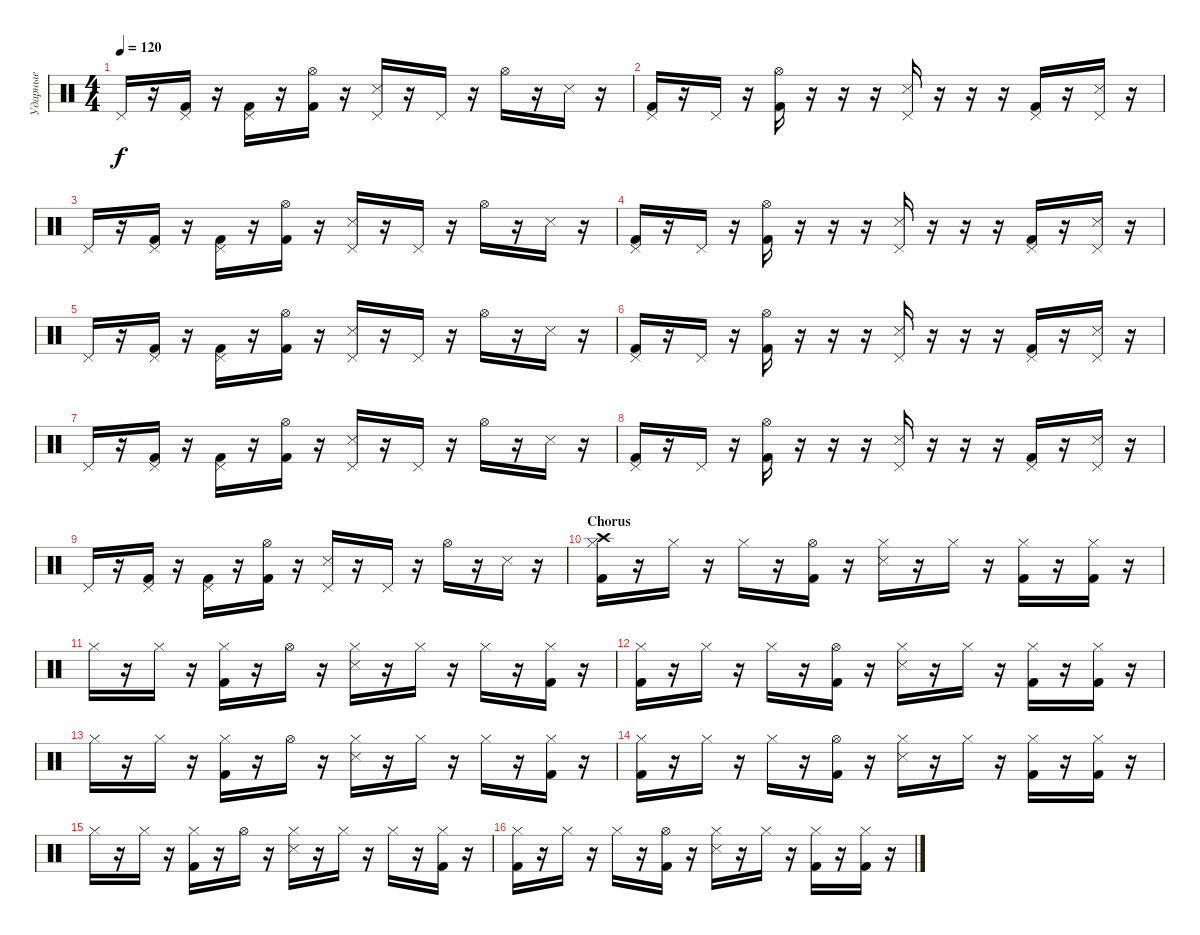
\track ("Ударные" "Ударные") {instrument percussion}
\staff {score}
\articulation defaults
\ts (4 4)
\tempo 120
\clef neutral
\ks c "Pedal Hi-Hat (hit)".16{dy f}
r.16 ("Pedal Hi-Hat (hit)" "Kick (hit) 2").16 r.16 ("Pedal Hi-Hat (hit)" "Kick (hit) 2").16 r.16 ("Hi-Hat (open)" "Kick (hit) 2").16 r.16 ("Pedal Hi-Hat (hit)" "Snare (side stick) 3").16 r.16 "Pedal Hi-Hat (hit)".16 r.16 "Hi-Hat (open)".16 r.16 "Snare (side stick) 3".16 r.16 |
("Pedal Hi-Hat (hit)" "Kick (hit) 2").16 r.16 "Pedal Hi-Hat (hit)".16 r.16 ("Hi-Hat (open)" "Kick (hit) 2").16 r.16 r.16 r.16 ("Pedal Hi-Hat (hit)" "Snare (side stick) 3").16 r.16 r.16 r.16 ("Pedal Hi-Hat (hit)" "Kick (hit) 2").16 r.16 ("Pedal Hi-Hat (hit)" "Snare (side stick) 3").16 r.16 |
"Pedal Hi-Hat (hit)".16 r.16 ("Pedal Hi-Hat (hit)" "Kick (hit) 2").16 r.16 ("Pedal Hi-Hat (hit)" "Kick (hit) 2").16 r.16 ("Hi-Hat (open)" "Kick (hit) 2").16 r.16 ("Pedal Hi-Hat (hit)" "Snare (side stick) 3").16 r.16 "Pedal Hi-Hat (hit)".16 r.16 "Hi-Hat (open)".16 r.16 "Snare (side stick) 3".16 r.16 |
("Pedal Hi-Hat (hit)" "Kick (hit) 2").16 r.16 "Pedal Hi-Hat (hit)".16 r.16 ("Hi-Hat (open)" "Kick (hit) 2").16 r.16 r.16 r.16 ("Pedal Hi-Hat (hit)" "Snare (side stick) 3").16 r.16 r.16 r.16 ("Pedal Hi-Hat (hit)" "Kick (hit) 2").16 r.16 ("Pedal Hi-Hat (hit)" "Snare (side stick) 3").16 r.16 |
"Pedal Hi-Hat (hit)".16 r.16 ("Pedal Hi-Hat (hit)" "Kick (hit) 2").16 r.16 ("Pedal Hi-Hat (hit)" "Kick (hit) 2").16 r.16 ("Hi-Hat (open)" "Kick (hit) 2").16 r.16 ("Pedal Hi-Hat (hit)" "Snare (side stick) 3").16 r.16 "Pedal Hi-Hat (hit)".16 r.16 "Hi-Hat (open)".16 r.16 "Snare (side stick) 3".16 r.16 |
("Pedal Hi-Hat (hit)" "Kick (hit) 2").16 r.16 "Pedal Hi-Hat (hit)".16 r.16 ("Hi-Hat (open)" "Kick (hit) 2").16 r.16 r.16 r.16 ("Pedal Hi-Hat (hit)" "Snare (side stick) 3").16 r.16 r.16 r.16 ("Pedal Hi-Hat (hit)" "Kick (hit) 2").16 r.16 ("Pedal Hi-Hat (hit)" "Snare (side stick) 3").16 r.16 |
"Pedal Hi-Hat (hit)".16 r.16 ("Pedal Hi-Hat (hit)" "Kick (hit) 2").16 r.16 ("Pedal Hi-Hat (hit)" "Kick (hit) 2").16 r.16 ("Hi-Hat (open)" "Kick (hit) 2").16 r.16 ("Pedal Hi-Hat (hit)" "Snare (side stick) 3").16 r.16 "Pedal Hi-Hat (hit)".16 r.16 "Hi-Hat (open)".16 r.16 "Snare (side stick) 3".16 r.16 |
("Pedal Hi-Hat (hit)" "Kick (hit) 2").16 r.16 "Pedal Hi-Hat (hit)".16 r.16 ("Hi-Hat (open)" "Kick (hit) 2").16 r.16 r.16 r.16 ("Pedal Hi-Hat (hit)" "Snare (side stick) 3").16 r.16 r.16 r.16 ("Pedal Hi-Hat (hit)" "Kick (hit) 2").16 r.16 ("Pedal Hi-Hat (hit)" "Snare (side stick) 3").16 r.16 |
"Pedal Hi-Hat (hit)".16 r.16 ("Pedal Hi-Hat (hit)" "Kick (hit) 2").16 r.16 ("Pedal Hi-Hat (hit)" "Kick (hit) 2").16 r.16 ("Hi-Hat (open)" "Kick (hit) 2").16 r.16 ("Pedal Hi-Hat (hit)" "Snare (side stick) 3").16 r.16 "Pedal Hi-Hat (hit)".16 r.16 "Hi-Hat (open)".16 r.16 "Snare (side stick) 3".16 r.16 |
\section ("" "Chorus")
("Crash high (hit)" "Hi-Hat (closed)" "Kick (hit) 2").16 r.16 "Hi-Hat (closed)".16 r.16 "Hi-Hat (closed)".16 r.16 ("Hi-Hat (open)" "Kick (hit) 2").16 r.16 ("Hi-Hat (closed)" "Snare (side stick) 3").16 r.16 "Hi-Hat (closed)".16 r.16 ("Hi-Hat (closed)" "Kick (hit) 2").16 r.16 ("Hi-Hat (closed)" "Kick (hit) 2").16 r.16 |
"Hi-Hat (closed)".16 r.16 "Hi-Hat (closed)".16 r.16 ("Hi-Hat (closed)" "Kick (hit) 2").16 r.16 "Hi-Hat (open)".16 r.16 ("Hi-Hat (closed)" "Metronome (hit)").16 r.16 "Hi-Hat (closed)".16 r.16 "Hi-Hat (closed)".16 r.16 ("Hi-Hat (closed)" "Kick (hit) 2").16 r.16 |
("Hi-Hat (closed)" "Kick (hit) 2").16 r.16 "Hi-Hat (closed)".16 r.16 "Hi-Hat (closed)".16 r.16 ("Hi-Hat (open)" "Kick (hit) 2").16 r.16 ("Hi-Hat (closed)" "Snare (side stick) 3").16 r.16 "Hi-Hat (closed)".16 r.16 ("Hi-Hat (closed)" "Kick (hit) 2").16 r.16 ("Hi-Hat (closed)" "Kick (hit) 2").16 r.16 |
"Hi-Hat (closed)".16 r.16 "Hi-Hat (closed)".16 r.16 ("Hi-Hat (closed)" "Kick (hit) 2").16 r.16 "Hi-Hat (open)".16 r.16 ("Hi-Hat (closed)" "Metronome (hit)").16 r.16 "Hi-Hat (closed)".16 r.16 "Hi-Hat (closed)".16 r.16 ("Hi-Hat (closed)" "Kick (hit) 2").16 r.16 |
("Hi-Hat (closed)" "Kick (hit) 2").16 r.16 "Hi-Hat (closed)".16 r.16 "Hi-Hat (closed)".16 r.16 ("Hi-Hat (open)" "Kick (hit) 2").16 r.16 ("Hi-Hat (closed)" "Snare (side stick) 3").16 r.16 "Hi-Hat (closed)".16 r.16 ("Hi-Hat (closed)" "Kick (hit) 2").16 r.16 ("Hi-Hat (closed)" "Kick (hit) 2").16 r.16 |
"Hi-Hat (closed)".16 r.16 "Hi-Hat (closed)".16 r.16 ("Hi-Hat (closed)" "Kick (hit) 2").16 r.16 "Hi-Hat (open)".16 r.16 ("Hi-Hat (closed)" "Metronome (hit)").16 r.16 "Hi-Hat (closed)".16 r.16 "Hi-Hat (closed)".16 r.16 ("Hi-Hat (closed)" "Kick (hit) 2").16 r.16 |
("Hi-Hat (closed)" "Kick (hit) 2").16 r.16 "Hi-Hat (closed)".16 r.16 "Hi-Hat (closed)".16 r.16 ("Hi-Hat (open)" "Kick (hit) 2").16 r.16 ("Hi-Hat (closed)" "Snare (side stick) 3").16 r.16 "Hi-Hat (closed)".16 r.16 ("Hi-Hat (closed)" "Kick (hit) 2").16 r.16 ("Hi-Hat (closed)" "Kick (hit) 2").16 r.16
